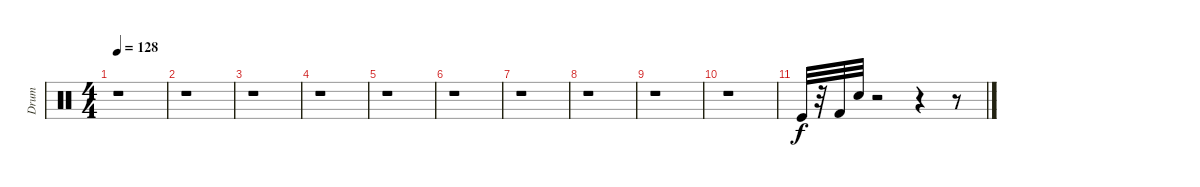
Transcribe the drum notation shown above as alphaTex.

\track ("Drum" "Drum") {instrument percussion}
\staff {score}
\articulation defaults
\ts (4 4)
\tempo 128
\clef neutral
\ks c
r.1{dy pp} |
r.1 |
r.1 |
r.1 |
r.1 |
r.1 |
r.1 |
r.1 |
r.1 |
r.1 |
"Kick (hit)".32{dy f} r.32 "Kick (hit) 2".32 "Snare (hit) 2".32 r.2 r.4 r.8
